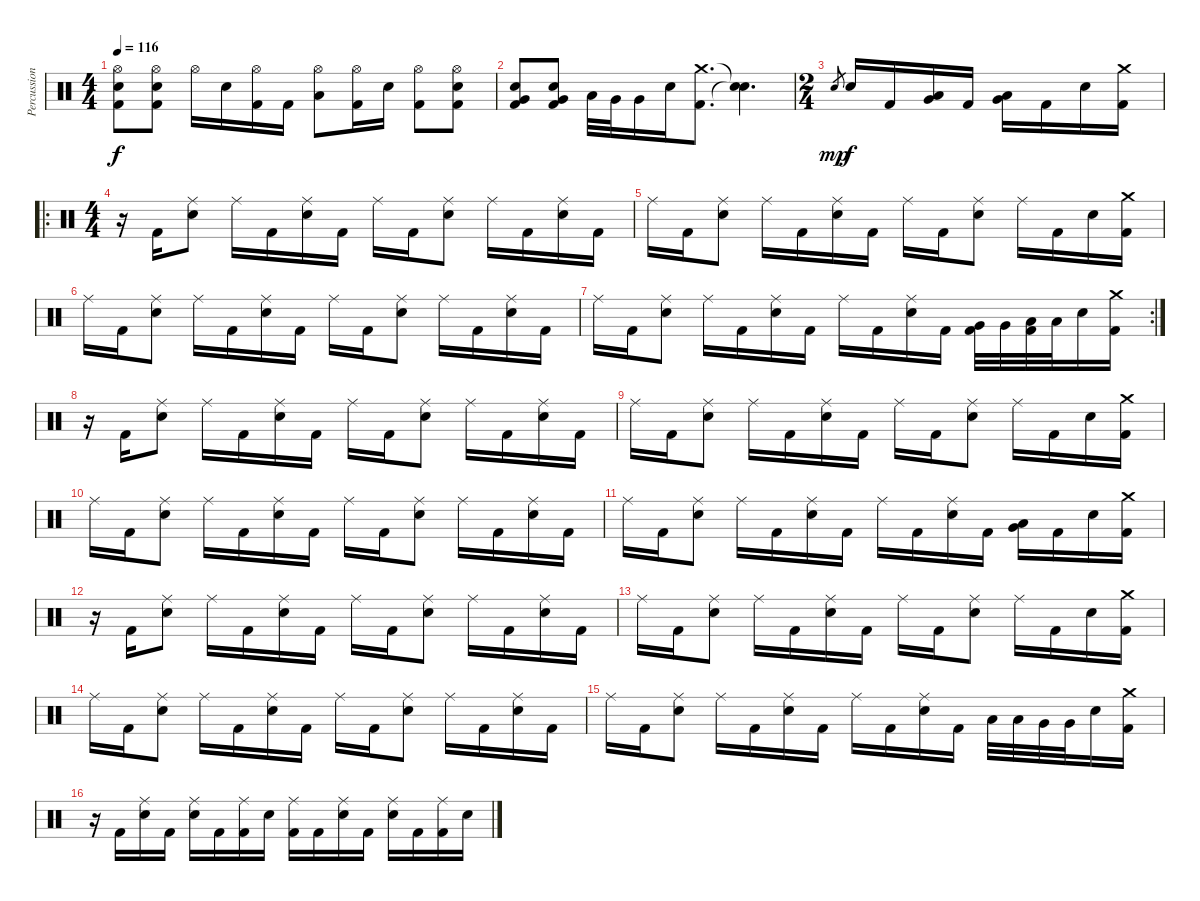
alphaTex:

\track ("Percussion" "Percussion") {instrument percussion}
\staff {score}
\articulation defaults
\ts (4 4)
\tempo 116
\clef neutral
\ks c
("Hi-Hat (open)" "Electric Snare (hit)" "Kick (hit) 2").8{dy f} ("Hi-Hat (open)" "Electric Snare (hit)" "Kick (hit) 2").8 "Hi-Hat (open)".16 "Electric Snare (hit)".16 ("Hi-Hat (open)" "Kick (hit) 2").16 "Kick (hit) 2".16 ("Hi-Hat (open)" "Low Tom (hit)").8 ("Hi-Hat (open)" "Kick (hit) 2").16 "Electric Snare (hit)".16 ("Hi-Hat (open)" "Kick (hit) 2").8 ("Hi-Hat (open)" "Electric Snare (hit)" "Kick (hit) 2").8 |
("Electric Snare (hit)" "Very Low Tom (hit)" "Kick (hit) 2").8 ("Electric Snare (hit)" "Very Low Tom (hit)" "Kick (hit) 2").8 "Low Tom (hit)".32 "Very Low Tom (hit)".32 "Very Low Tom (hit)".16 "Electric Snare (hit)".16 ("Crash medium (hit)" "Kick (hit) 2").8{d} ("Snare (hit)"{t} "Snare (hit)"{t}).4{d} |
\ts (2 4)
"Electric Snare (hit)".8{gr dy mp} "Electric Snare (hit)".16{dy f} "Kick (hit) 2".16 ("Low Tom (hit)" "Very Low Tom (hit)").16 "Kick (hit) 2".16 ("Very Low Tom (hit)" "Low Tom (hit)").16 "Kick (hit) 2".16 "Electric Snare (hit)".16 ("Crash medium (hit)" "Kick (hit) 2").16 |
\ro
\ts (4 4)
r.16 "Kick (hit) 2".16 ("Ride (middle)" "Electric Snare (hit)").8 "Ride (middle)".16 "Kick (hit) 2".16 ("Ride (middle)" "Electric Snare (hit)").16 "Kick (hit) 2".16 "Ride (middle)".16 "Kick (hit) 2".16 ("Ride (middle)" "Electric Snare (hit)").8 "Ride (middle)".16 "Kick (hit) 2".16 ("Ride (middle)" "Electric Snare (hit)").16 "Kick (hit) 2".16 |
"Ride (middle)".16 "Kick (hit) 2".16 ("Ride (middle)" "Electric Snare (hit)").8 "Ride (middle)".16 "Kick (hit) 2".16 ("Ride (middle)" "Electric Snare (hit)").16 "Kick (hit) 2".16 "Ride (middle)".16 "Kick (hit) 2".16 ("Ride (middle)" "Electric Snare (hit)").8 "Ride (middle)".16 "Kick (hit) 2".16 "Electric Snare (hit)".16 ("Crash medium (hit)" "Kick (hit) 2").16 |
"Ride (middle)".16 "Kick (hit) 2".16 ("Ride (middle)" "Electric Snare (hit)").8 "Ride (middle)".16 "Kick (hit) 2".16 ("Ride (middle)" "Electric Snare (hit)").16 "Kick (hit) 2".16 "Ride (middle)".16 "Kick (hit) 2".16 ("Ride (middle)" "Electric Snare (hit)").8 "Ride (middle)".16 "Kick (hit) 2".16 ("Ride (middle)" "Electric Snare (hit)").16 "Kick (hit) 2".16 |
\rc 2 "Ride (middle)".16 "Kick (hit) 2".16
("Ride (middle)" "Electric Snare (hit)").8 "Ride (middle)".16 "Kick (hit) 2".16 ("Ride (middle)" "Electric Snare (hit)").16 "Kick (hit) 2".16 "Ride (middle)".16 "Kick (hit) 2".16 ("Ride (middle)" "Electric Snare (hit)").16 "Kick (hit) 2".16 ("Very Low Tom (hit)" "Kick (hit) 2").32 "Very Low Tom (hit)".32 ("Low Tom (hit)" "Kick (hit) 2").32 "Low Tom (hit)".32 "Electric Snare (hit)".16 ("Crash medium (hit)" "Kick (hit) 2").16 |
r.16 "Kick (hit) 2".16 ("Ride (middle)" "Electric Snare (hit)").8 "Ride (middle)".16 "Kick (hit) 2".16 ("Ride (middle)" "Electric Snare (hit)").16 "Kick (hit) 2".16 "Ride (middle)".16 "Kick (hit) 2".16 ("Ride (middle)" "Electric Snare (hit)").8 "Ride (middle)".16 "Kick (hit) 2".16 ("Ride (middle)" "Electric Snare (hit)").16 "Kick (hit) 2".16 |
"Ride (middle)".16 "Kick (hit) 2".16 ("Ride (middle)" "Electric Snare (hit)").8 "Ride (middle)".16 "Kick (hit) 2".16 ("Ride (middle)" "Electric Snare (hit)").16 "Kick (hit) 2".16 "Ride (middle)".16 "Kick (hit) 2".16 ("Ride (middle)" "Electric Snare (hit)").8 "Ride (middle)".16 "Kick (hit) 2".16 "Electric Snare (hit)".16 ("Crash medium (hit)" "Kick (hit) 2").16 |
"Ride (middle)".16 "Kick (hit) 2".16 ("Ride (middle)" "Electric Snare (hit)").8 "Ride (middle)".16 "Kick (hit) 2".16 ("Ride (middle)" "Electric Snare (hit)").16 "Kick (hit) 2".16 "Ride (middle)".16 "Kick (hit) 2".16 ("Ride (middle)" "Electric Snare (hit)").8 "Ride (middle)".16 "Kick (hit) 2".16 ("Ride (middle)" "Electric Snare (hit)").16 "Kick (hit) 2".16 |
"Ride (middle)".16 "Kick (hit) 2".16 ("Ride (middle)" "Electric Snare (hit)").8 "Ride (middle)".16 "Kick (hit) 2".16 ("Ride (middle)" "Electric Snare (hit)").16 "Kick (hit) 2".16 "Ride (middle)".16 "Kick (hit) 2".16 ("Ride (middle)" "Electric Snare (hit)").16 "Kick (hit) 2".16 ("Low Tom (hit)" "Very Low Tom (hit)").16 "Kick (hit) 2".16 "Electric Snare (hit)".16 ("Crash medium (hit)" "Kick (hit) 2").16 |
r.16 "Kick (hit) 2".16 ("Ride (middle)" "Electric Snare (hit)").8 "Ride (middle)".16 "Kick (hit) 2".16 ("Ride (middle)" "Electric Snare (hit)").16 "Kick (hit) 2".16 "Ride (middle)".16 "Kick (hit) 2".16 ("Ride (middle)" "Electric Snare (hit)").8 "Ride (middle)".16 "Kick (hit) 2".16 ("Ride (middle)" "Electric Snare (hit)").16 "Kick (hit) 2".16 |
"Ride (middle)".16 "Kick (hit) 2".16 ("Ride (middle)" "Electric Snare (hit)").8 "Ride (middle)".16 "Kick (hit) 2".16 ("Ride (middle)" "Electric Snare (hit)").16 "Kick (hit) 2".16 "Ride (middle)".16 "Kick (hit) 2".16 ("Ride (middle)" "Electric Snare (hit)").8 "Ride (middle)".16 "Kick (hit) 2".16 "Electric Snare (hit)".16 ("Crash medium (hit)" "Kick (hit) 2").16 |
"Ride (middle)".16 "Kick (hit) 2".16 ("Ride (middle)" "Electric Snare (hit)").8 "Ride (middle)".16 "Kick (hit) 2".16 ("Ride (middle)" "Electric Snare (hit)").16 "Kick (hit) 2".16 "Ride (middle)".16 "Kick (hit) 2".16 ("Ride (middle)" "Electric Snare (hit)").8 "Ride (middle)".16 "Kick (hit) 2".16 ("Ride (middle)" "Electric Snare (hit)").16 "Kick (hit) 2".16 |
"Ride (middle)".16 "Kick (hit) 2".16 ("Ride (middle)" "Electric Snare (hit)").8 "Ride (middle)".16 "Kick (hit) 2".16 ("Ride (middle)" "Electric Snare (hit)").16 "Kick (hit) 2".16 "Ride (middle)".16 "Kick (hit) 2".16 ("Ride (middle)" "Electric Snare (hit)").16 "Kick (hit) 2".16 "Low Tom (hit)".32 "Low Tom (hit)".32 "Very Low Tom (hit)".32 "Very Low Tom (hit)".32 "Electric Snare (hit)".16 ("Crash medium (hit)" "Kick (hit) 2").16 |
r.16 "Kick (hit) 2".16 ("Ride (middle)" "Electric Snare (hit)").16 "Kick (hit) 2".16 ("Ride (middle)" "Electric Snare (hit)").16 "Kick (hit) 2".16 ("Ride (middle)" "Kick (hit) 2").16 "Electric Snare (hit)".16 ("Ride (middle)" "Kick (hit) 2").16 "Kick (hit) 2".16 ("Ride (middle)" "Electric Snare (hit)").16 "Kick (hit) 2".16 ("Ride (middle)" "Electric Snare (hit)").16 "Kick (hit) 2".16 ("Ride (middle)" "Kick (hit) 2").16 "Electric Snare (hit)".16
